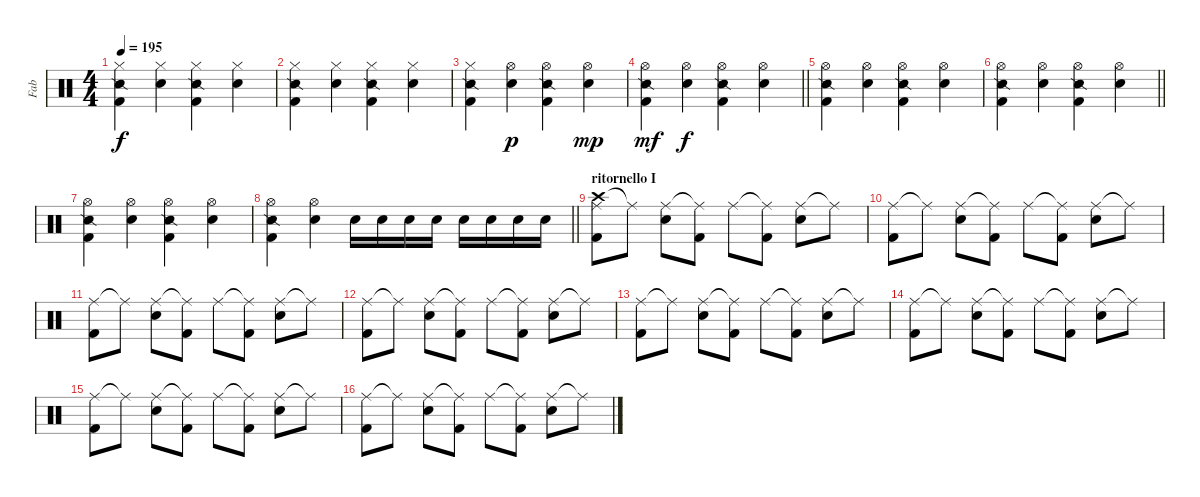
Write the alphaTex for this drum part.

\track ("Fab" "Fab") {instrument percussion}
\staff {score}
\articulation defaults
\ts (4 4)
\tempo 195
\clef neutral
\ks c
("Hi-Hat (closed)" "Snare (side stick) 2" "Kick (hit) 2").4{dy f} ("Hi-Hat (closed)" "Electric Snare (hit)").4 ("Hi-Hat (closed)" "Snare (side stick) 2" "Kick (hit) 2").4 ("Hi-Hat (closed)" "Electric Snare (hit)").4 |
("Hi-Hat (closed)" "Snare (side stick) 2" "Kick (hit) 2").4 ("Hi-Hat (closed)" "Electric Snare (hit)").4 ("Hi-Hat (closed)" "Snare (side stick) 2" "Kick (hit) 2").4 ("Hi-Hat (closed)" "Electric Snare (hit)").4 |
("Hi-Hat (closed)" "Snare (side stick) 2" "Kick (hit) 2").4 ("Hi-Hat (open)" "Electric Snare (hit)").4{dy p} ("Hi-Hat (open)" "Snare (side stick) 2" "Kick (hit) 2").4 ("Hi-Hat (open)" "Electric Snare (hit)").4{dy mp} |
\barLineRight lightlight
("Hi-Hat (open)" "Snare (side stick) 2" "Kick (hit) 2").4{dy mf} ("Hi-Hat (open)" "Electric Snare (hit)").4{dy f} ("Hi-Hat (open)" "Snare (side stick) 2" "Kick (hit) 2").4 ("Hi-Hat (open)" "Electric Snare (hit)").4 |
("Hi-Hat (open)" "Snare (side stick) 2" "Kick (hit) 2").4 ("Hi-Hat (open)" "Electric Snare (hit)").4 ("Hi-Hat (open)" "Snare (side stick) 2" "Kick (hit) 2").4 ("Hi-Hat (open)" "Electric Snare (hit)").4 |
\barLineRight lightlight
("Hi-Hat (open)" "Snare (side stick) 2" "Kick (hit) 2").4 ("Hi-Hat (open)" "Electric Snare (hit)").4 ("Hi-Hat (open)" "Snare (side stick) 2" "Kick (hit) 2").4 ("Hi-Hat (open)" "Electric Snare (hit)").4 |
("Hi-Hat (open)" "Snare (side stick) 2" "Kick (hit) 2").4 ("Hi-Hat (open)" "Electric Snare (hit)").4 ("Hi-Hat (open)" "Snare (side stick) 2" "Kick (hit) 2").4 ("Hi-Hat (open)" "Electric Snare (hit)").4 |
\barLineRight lightlight
("Hi-Hat (open)" "Snare (side stick) 2" "Kick (hit) 2").4 ("Hi-Hat (open)" "Electric Snare (hit)").4 "Electric Snare (hit)".16 "Electric Snare (hit)".16 "Electric Snare (hit)".16 "Electric Snare (hit)".16 "Electric Snare (hit)".16 "Electric Snare (hit)".16 "Electric Snare (hit)".16 "Electric Snare (hit)".16 |
\section ("" "ritornello I")
("Crash high (hit)" "Ride (middle)" "Kick (hit) 2").8 "Ride (middle)"{t}.8 ("Ride (middle)" "Electric Snare (hit)").8 ("Ride (middle)"{t} "Kick (hit) 2").8 "Ride (middle)".8 ("Ride (middle)"{t} "Kick (hit) 2").8 ("Ride (middle)" "Electric Snare (hit)").8 "Ride (middle)"{t}.8 |
("Ride (middle)" "Kick (hit) 2").8 "Ride (middle)"{t}.8 ("Ride (middle)" "Electric Snare (hit)").8 ("Ride (middle)"{t} "Kick (hit) 2").8 "Ride (middle)".8 ("Ride (middle)"{t} "Kick (hit) 2").8 ("Ride (middle)" "Electric Snare (hit)").8 "Ride (middle)"{t}.8 |
("Ride (middle)" "Kick (hit) 2").8 "Ride (middle)"{t}.8 ("Ride (middle)" "Electric Snare (hit)").8 ("Ride (middle)"{t} "Kick (hit) 2").8 "Ride (middle)".8 ("Ride (middle)"{t} "Kick (hit) 2").8 ("Ride (middle)" "Electric Snare (hit)").8 "Ride (middle)"{t}.8 |
("Ride (middle)" "Kick (hit) 2").8 "Ride (middle)"{t}.8 ("Ride (middle)" "Electric Snare (hit)").8 ("Ride (middle)"{t} "Kick (hit) 2").8 "Ride (middle)".8 ("Ride (middle)"{t} "Kick (hit) 2").8 ("Ride (middle)" "Electric Snare (hit)").8 "Ride (middle)"{t}.8 |
("Ride (middle)" "Kick (hit) 2").8 "Ride (middle)"{t}.8 ("Ride (middle)" "Electric Snare (hit)").8 ("Ride (middle)"{t} "Kick (hit) 2").8 "Ride (middle)".8 ("Ride (middle)"{t} "Kick (hit) 2").8 ("Ride (middle)" "Electric Snare (hit)").8 "Ride (middle)"{t}.8 |
("Ride (middle)" "Kick (hit) 2").8 "Ride (middle)"{t}.8 ("Ride (middle)" "Electric Snare (hit)").8 ("Ride (middle)"{t} "Kick (hit) 2").8 "Ride (middle)".8 ("Ride (middle)"{t} "Kick (hit) 2").8 ("Ride (middle)" "Electric Snare (hit)").8 "Ride (middle)"{t}.8 |
("Ride (middle)" "Kick (hit) 2").8 "Ride (middle)"{t}.8 ("Ride (middle)" "Electric Snare (hit)").8 ("Ride (middle)"{t} "Kick (hit) 2").8 "Ride (middle)".8 ("Ride (middle)"{t} "Kick (hit) 2").8 ("Ride (middle)" "Electric Snare (hit)").8 "Ride (middle)"{t}.8 |
("Ride (middle)" "Kick (hit) 2").8 "Ride (middle)"{t}.8 ("Ride (middle)" "Electric Snare (hit)").8 ("Ride (middle)"{t} "Kick (hit) 2").8 "Ride (middle)".8 ("Ride (middle)"{t} "Kick (hit) 2").8 ("Ride (middle)" "Electric Snare (hit)").8 "Ride (middle)"{t}.8
